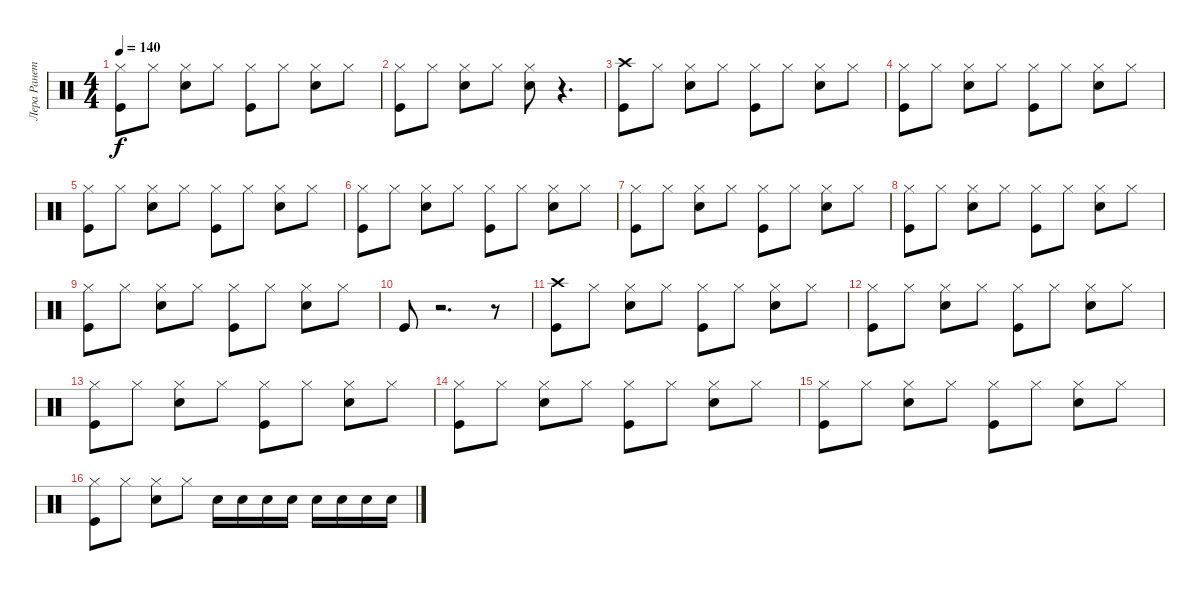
\track ("Лера Ранетка" "Лера Ранет") {instrument percussion}
\staff {score}
\articulation defaults
\ts (4 4)
\tempo 140
\clef neutral
\ks c
("Hi-Hat (closed)" "Kick (hit)").8{dy f} "Hi-Hat (closed)".8 ("Hi-Hat (closed)" "Electric Snare (hit)").8 "Hi-Hat (closed)".8 ("Hi-Hat (closed)" "Kick (hit)").8 "Hi-Hat (closed)".8 ("Hi-Hat (closed)" "Electric Snare (hit)").8 "Hi-Hat (closed)".8 |
("Hi-Hat (closed)" "Kick (hit)").8 "Hi-Hat (closed)".8 ("Hi-Hat (closed)" "Electric Snare (hit)").8 "Hi-Hat (closed)".8 ("Hi-Hat (closed)" "Electric Snare (hit)").8 r.4{d} |
("Crash high (hit)" "Kick (hit)").8 "Hi-Hat (closed)".8 ("Hi-Hat (closed)" "Electric Snare (hit)").8 "Hi-Hat (closed)".8 ("Hi-Hat (closed)" "Kick (hit)").8 "Hi-Hat (closed)".8 ("Hi-Hat (closed)" "Electric Snare (hit)").8 "Hi-Hat (closed)".8 |
("Hi-Hat (closed)" "Kick (hit)").8 "Hi-Hat (closed)".8 ("Hi-Hat (closed)" "Electric Snare (hit)").8 "Hi-Hat (closed)".8 ("Hi-Hat (closed)" "Kick (hit)").8 "Hi-Hat (closed)".8 ("Hi-Hat (closed)" "Electric Snare (hit)").8 "Hi-Hat (closed)".8 |
("Hi-Hat (closed)" "Kick (hit)").8 "Hi-Hat (closed)".8 ("Hi-Hat (closed)" "Electric Snare (hit)").8 "Hi-Hat (closed)".8 ("Hi-Hat (closed)" "Kick (hit)").8 "Hi-Hat (closed)".8 ("Hi-Hat (closed)" "Electric Snare (hit)").8 "Hi-Hat (closed)".8 |
("Hi-Hat (closed)" "Kick (hit)").8 "Hi-Hat (closed)".8 ("Hi-Hat (closed)" "Electric Snare (hit)").8 "Hi-Hat (closed)".8 ("Hi-Hat (closed)" "Kick (hit)").8 "Hi-Hat (closed)".8 ("Hi-Hat (closed)" "Electric Snare (hit)").8 "Hi-Hat (closed)".8 |
("Hi-Hat (closed)" "Kick (hit)").8 "Hi-Hat (closed)".8 ("Hi-Hat (closed)" "Electric Snare (hit)").8 "Hi-Hat (closed)".8 ("Hi-Hat (closed)" "Kick (hit)").8 "Hi-Hat (closed)".8 ("Hi-Hat (closed)" "Electric Snare (hit)").8 "Hi-Hat (closed)".8 |
("Hi-Hat (closed)" "Kick (hit)").8 "Hi-Hat (closed)".8 ("Hi-Hat (closed)" "Electric Snare (hit)").8 "Hi-Hat (closed)".8 ("Hi-Hat (closed)" "Kick (hit)").8 "Hi-Hat (closed)".8 ("Hi-Hat (closed)" "Electric Snare (hit)").8 "Hi-Hat (closed)".8 |
("Hi-Hat (closed)" "Kick (hit)").8 "Hi-Hat (closed)".8 ("Hi-Hat (closed)" "Electric Snare (hit)").8 "Hi-Hat (closed)".8 ("Hi-Hat (closed)" "Kick (hit)").8 "Hi-Hat (closed)".8 ("Hi-Hat (closed)" "Electric Snare (hit)").8 "Hi-Hat (closed)".8 |
"Kick (hit)".8 r.2{d} r.8 |
("Crash high (hit)" "Kick (hit)").8 "Hi-Hat (closed)".8 ("Hi-Hat (closed)" "Electric Snare (hit)").8 "Hi-Hat (closed)".8 ("Hi-Hat (closed)" "Kick (hit)").8 "Hi-Hat (closed)".8 ("Hi-Hat (closed)" "Electric Snare (hit)").8 "Hi-Hat (closed)".8 |
("Hi-Hat (closed)" "Kick (hit)").8 "Hi-Hat (closed)".8 ("Hi-Hat (closed)" "Electric Snare (hit)").8 "Hi-Hat (closed)".8 ("Hi-Hat (closed)" "Kick (hit)").8 "Hi-Hat (closed)".8 ("Hi-Hat (closed)" "Electric Snare (hit)").8 "Hi-Hat (closed)".8 |
("Hi-Hat (closed)" "Kick (hit)").8 "Hi-Hat (closed)".8 ("Hi-Hat (closed)" "Electric Snare (hit)").8 "Hi-Hat (closed)".8 ("Hi-Hat (closed)" "Kick (hit)").8 "Hi-Hat (closed)".8 ("Hi-Hat (closed)" "Electric Snare (hit)").8 "Hi-Hat (closed)".8 |
("Hi-Hat (closed)" "Kick (hit)").8 "Hi-Hat (closed)".8 ("Hi-Hat (closed)" "Electric Snare (hit)").8 "Hi-Hat (closed)".8 ("Hi-Hat (closed)" "Kick (hit)").8 "Hi-Hat (closed)".8 ("Hi-Hat (closed)" "Electric Snare (hit)").8 "Hi-Hat (closed)".8 |
("Hi-Hat (closed)" "Kick (hit)").8 "Hi-Hat (closed)".8 ("Hi-Hat (closed)" "Electric Snare (hit)").8 "Hi-Hat (closed)".8 ("Hi-Hat (closed)" "Kick (hit)").8 "Hi-Hat (closed)".8 ("Hi-Hat (closed)" "Electric Snare (hit)").8 "Hi-Hat (closed)".8 |
("Hi-Hat (closed)" "Kick (hit)").8 "Hi-Hat (closed)".8 ("Hi-Hat (closed)" "Electric Snare (hit)").8 "Hi-Hat (closed)".8 "Electric Snare (hit)".16 "Electric Snare (hit)".16 "Electric Snare (hit)".16 "Electric Snare (hit)".16 "Electric Snare (hit)".16 "Electric Snare (hit)".16 "Electric Snare (hit)".16 "Electric Snare (hit)".16
